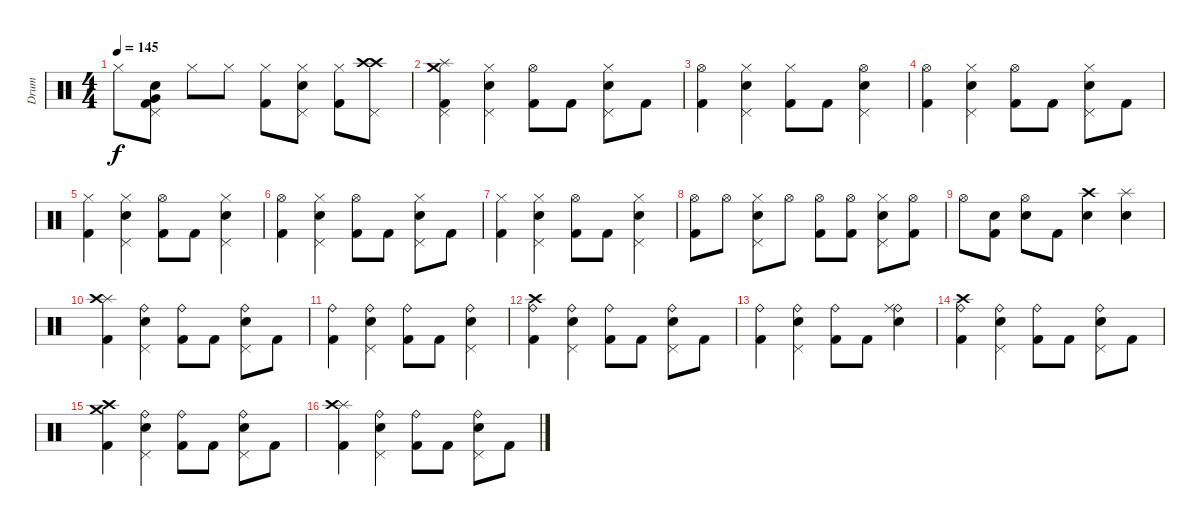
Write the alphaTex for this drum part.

\track ("Drum" "Drum") {instrument percussion}
\staff {score}
\articulation defaults
\ts (4 4)
\tempo 145
\clef neutral
\ks c "Hi-Hat (closed)".8{dy f}
("Very Low Tom (hit)" "Snare (hit) 2" "Kick (hit) 2" "Pedal Hi-Hat (hit)").8 "Hi-Hat (closed)".8 "Hi-Hat (closed)".8 ("Hi-Hat (closed)" "Kick (hit) 2").8 ("Hi-Hat (closed)" "Snare (hit) 2" "Pedal Hi-Hat (hit)").8 ("Hi-Hat (closed)" "Kick (hit) 2").8 ("Crash high (hit)" "Crash high (hit)" "Pedal Hi-Hat (hit)").8 |
("Splash (hit)" "Crash medium (hit)" "Kick (hit) 2" "Pedal Hi-Hat (hit)").4 ("Hi-Hat (closed)" "Snare (hit) 2" "Pedal Hi-Hat (hit)").4 ("Hi-Hat (open)" "Kick (hit) 2").8 "Kick (hit) 2".8 ("Hi-Hat (closed)" "Snare (hit) 2" "Pedal Hi-Hat (hit)").8 "Kick (hit) 2".8 |
("Hi-Hat (open)" "Kick (hit) 2").4 ("Hi-Hat (closed)" "Snare (hit) 2" "Pedal Hi-Hat (hit)").4 ("Hi-Hat (closed)" "Kick (hit) 2").8 "Kick (hit) 2".8 ("Hi-Hat (open)" "Snare (hit) 2" "Pedal Hi-Hat (hit)").4 |
("Hi-Hat (open)" "Kick (hit) 2").4 ("Hi-Hat (closed)" "Snare (hit) 2" "Pedal Hi-Hat (hit)").4 ("Hi-Hat (open)" "Kick (hit) 2").8 "Kick (hit) 2".8 ("Hi-Hat (closed)" "Snare (hit) 2" "Pedal Hi-Hat (hit)").8 "Kick (hit) 2".8 |
("Hi-Hat (closed)" "Kick (hit) 2").4 ("Hi-Hat (closed)" "Snare (hit) 2" "Pedal Hi-Hat (hit)").4 ("Hi-Hat (open)" "Kick (hit) 2").8 "Kick (hit) 2".8 ("Hi-Hat (closed)" "Snare (hit) 2" "Pedal Hi-Hat (hit)").4 |
("Hi-Hat (open)" "Kick (hit) 2").4 ("Hi-Hat (closed)" "Snare (hit) 2" "Pedal Hi-Hat (hit)").4 ("Hi-Hat (open)" "Kick (hit) 2").8 "Kick (hit) 2".8 ("Hi-Hat (closed)" "Snare (hit) 2" "Pedal Hi-Hat (hit)").8 "Kick (hit) 2".8 |
("Hi-Hat (closed)" "Kick (hit) 2").4 ("Hi-Hat (closed)" "Snare (hit) 2" "Pedal Hi-Hat (hit)").4 ("Hi-Hat (open)" "Kick (hit) 2").8 "Kick (hit) 2".8 ("Hi-Hat (closed)" "Snare (hit) 2" "Pedal Hi-Hat (hit)").4 |
("Hi-Hat (open)" "Kick (hit) 2").8 "Hi-Hat (open)".8 ("Hi-Hat (closed)" "Snare (hit) 2" "Pedal Hi-Hat (hit)").8 "Hi-Hat (open)".8 ("Hi-Hat (open)" "Kick (hit) 2").8 ("Hi-Hat (open)" "Kick (hit) 2").8 ("Hi-Hat (closed)" "Snare (hit) 2" "Pedal Hi-Hat (hit)").8 ("Hi-Hat (open)" "Kick (hit) 2").8 |
"Hi-Hat (open)".8 ("Snare (hit) 2" "Kick (hit) 2").8 ("Hi-Hat (open)" "Snare (hit) 2").8 "Kick (hit) 2".8 ("Crash high (hit)" "Snare (hit) 2").4 ("Splash (hit)" "Snare (hit) 2").4 |
("Splash (hit)" "Crash high (hit)" "Kick (hit) 2").4 ("Ride (bell)" "Snare (hit) 2" "Pedal Hi-Hat (hit)").4 ("Ride (bell)" "Kick (hit) 2").8 "Kick (hit) 2".8 ("Ride (bell)" "Snare (hit) 2" "Pedal Hi-Hat (hit)").8 "Kick (hit) 2".8 |
("Ride (bell)" "Kick (hit) 2").4 ("Ride (bell)" "Snare (hit) 2" "Pedal Hi-Hat (hit)").4 ("Ride (bell)" "Kick (hit) 2").8 "Kick (hit) 2".8 ("Ride (bell)" "Snare (hit) 2" "Pedal Hi-Hat (hit)").4 |
("Ride (bell)" "Crash high (hit)" "Kick (hit) 2").4 ("Ride (bell)" "Snare (hit) 2" "Pedal Hi-Hat (hit)").4 ("Ride (bell)" "Kick (hit) 2").8 "Kick (hit) 2".8 ("Ride (bell)" "Snare (hit) 2" "Pedal Hi-Hat (hit)").8 "Kick (hit) 2".8 |
("Ride (bell)" "Kick (hit) 2").4 ("Ride (bell)" "Snare (hit) 2" "Pedal Hi-Hat (hit)").4 ("Ride (bell)" "Kick (hit) 2").8 "Kick (hit) 2".8 ("Ride (bell)" "Snare (hit) 2" "Ride (middle)").4 |
("Ride (bell)" "Crash high (hit)" "Kick (hit) 2").4 ("Ride (bell)" "Snare (hit) 2" "Pedal Hi-Hat (hit)").4 ("Ride (bell)" "Kick (hit) 2").8 "Kick (hit) 2".8 ("Ride (bell)" "Snare (hit) 2" "Pedal Hi-Hat (hit)").8 "Kick (hit) 2".8 |
("Crash medium (hit)" "Crash high (hit)" "Kick (hit) 2").4 ("Ride (bell)" "Snare (hit) 2" "Pedal Hi-Hat (hit)").4 ("Ride (bell)" "Kick (hit) 2").8 "Kick (hit) 2".8 ("Ride (bell)" "Snare (hit) 2" "Pedal Hi-Hat (hit)").8 "Kick (hit) 2".8 |
("Splash (hit)" "Crash high (hit)" "Kick (hit) 2").4 ("Ride (bell)" "Snare (hit) 2" "Pedal Hi-Hat (hit)").4 ("Ride (bell)" "Kick (hit) 2").8 "Kick (hit) 2".8 ("Ride (bell)" "Snare (hit) 2" "Pedal Hi-Hat (hit)").8 "Kick (hit) 2".8
